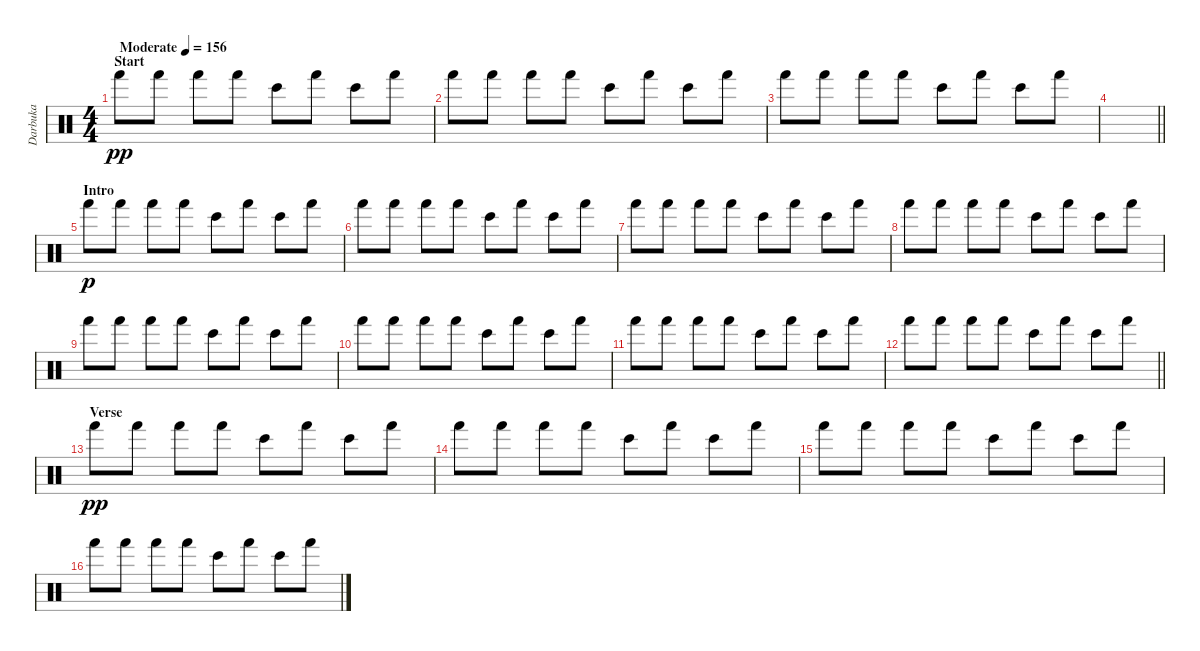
\track ("Darbuka" "Darbuka") {instrument percussion}
\staff {score}
\articulation defaults
\ts (4 4)
\section ("" "Start")
\tempo (156 "Moderate")
\clef neutral
\ks c "Hand (hit)".8{dy pp} "Hand (hit)".8 "Hand (hit)".8 "Hand (hit)".8 "Bongo High (hit)".8 "Hand (hit)".8 "Bongo High (hit)".8 "Hand (hit)".8
|
"Hand (hit)".8 "Hand (hit)".8 "Hand (hit)".8 "Hand (hit)".8 "Bongo High (hit)".8 "Hand (hit)".8 "Bongo High (hit)".8 "Hand (hit)".8 |
"Hand (hit)".8 "Hand (hit)".8 "Hand (hit)".8 "Hand (hit)".8 "Bongo High (hit)".8 "Hand (hit)".8 "Bongo High (hit)".8 "Hand (hit)".8 |
\barLineRight lightlight
|
\section ("" "Intro")
"Hand (hit)".8{dy p} "Hand (hit)".8 "Hand (hit)".8 "Hand (hit)".8 "Bongo High (hit)".8 "Hand (hit)".8 "Bongo High (hit)".8 "Hand (hit)".8 |
"Hand (hit)".8 "Hand (hit)".8 "Hand (hit)".8 "Hand (hit)".8 "Bongo High (hit)".8 "Hand (hit)".8 "Bongo High (hit)".8 "Hand (hit)".8 |
"Hand (hit)".8 "Hand (hit)".8 "Hand (hit)".8 "Hand (hit)".8 "Bongo High (hit)".8 "Hand (hit)".8 "Bongo High (hit)".8 "Hand (hit)".8 |
"Hand (hit)".8 "Hand (hit)".8 "Hand (hit)".8 "Hand (hit)".8 "Bongo High (hit)".8 "Hand (hit)".8 "Bongo High (hit)".8 "Hand (hit)".8 |
"Hand (hit)".8 "Hand (hit)".8 "Hand (hit)".8 "Hand (hit)".8 "Bongo High (hit)".8 "Hand (hit)".8 "Bongo High (hit)".8 "Hand (hit)".8 |
"Hand (hit)".8 "Hand (hit)".8 "Hand (hit)".8 "Hand (hit)".8 "Bongo High (hit)".8 "Hand (hit)".8 "Bongo High (hit)".8 "Hand (hit)".8 |
"Hand (hit)".8 "Hand (hit)".8 "Hand (hit)".8 "Hand (hit)".8 "Bongo High (hit)".8 "Hand (hit)".8 "Bongo High (hit)".8 "Hand (hit)".8 |
\barLineRight lightlight "Hand (hit)".8 "Hand (hit)".8 "Hand (hit)".8 "Hand (hit)".8 "Bongo High (hit)".8 "Hand (hit)".8 "Bongo High (hit)".8 "Hand (hit)".8
|
\section ("" "Verse")
"Hand (hit)".8{dy pp} "Hand (hit)".8 "Hand (hit)".8 "Hand (hit)".8 "Bongo High (hit)".8 "Hand (hit)".8 "Bongo High (hit)".8 "Hand (hit)".8 |
"Hand (hit)".8 "Hand (hit)".8 "Hand (hit)".8 "Hand (hit)".8 "Bongo High (hit)".8 "Hand (hit)".8 "Bongo High (hit)".8 "Hand (hit)".8 |
"Hand (hit)".8 "Hand (hit)".8 "Hand (hit)".8 "Hand (hit)".8 "Bongo High (hit)".8 "Hand (hit)".8 "Bongo High (hit)".8 "Hand (hit)".8 |
"Hand (hit)".8 "Hand (hit)".8 "Hand (hit)".8 "Hand (hit)".8 "Bongo High (hit)".8 "Hand (hit)".8 "Bongo High (hit)".8 "Hand (hit)".8
